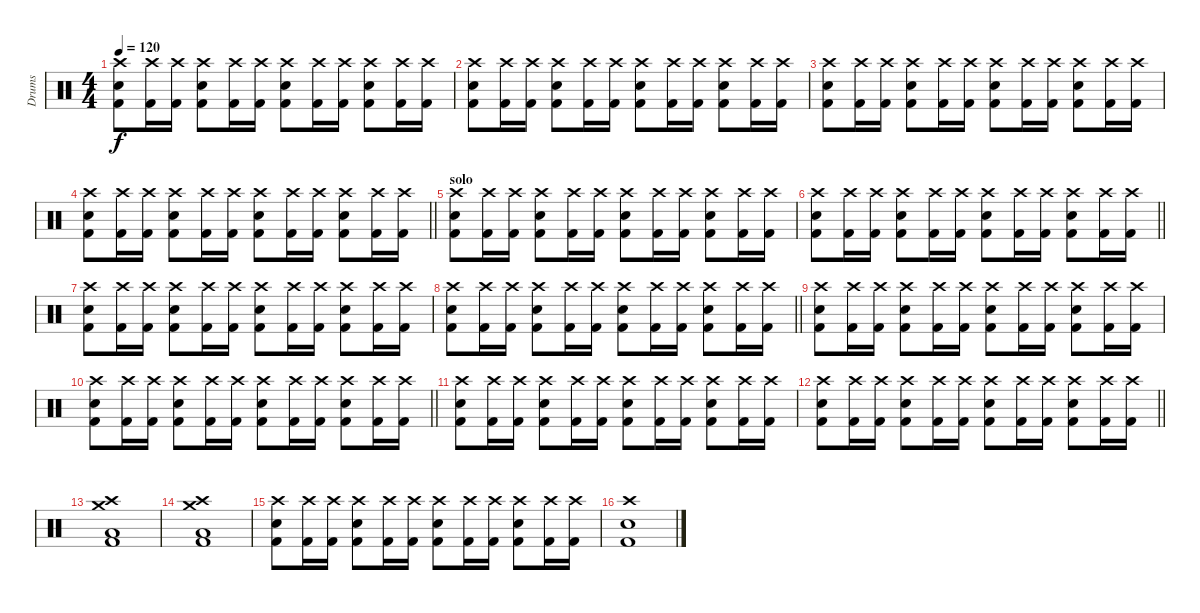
\track ("Drums" "Drums") {instrument percussion}
\staff {score}
\articulation defaults
\ts (4 4)
\tempo 120
\clef neutral
\ks c
("Electric Snare (hit)" "Crash high (hit)" "Kick (hit) 2").8{dy f} ("Crash high (hit)" "Kick (hit) 2").16 ("Crash high (hit)" "Kick (hit) 2").16 ("Electric Snare (hit)" "Crash high (hit)" "Kick (hit) 2").8 ("Crash high (hit)" "Kick (hit) 2").16 ("Crash high (hit)" "Kick (hit) 2").16 ("Electric Snare (hit)" "Crash high (hit)" "Kick (hit) 2").8 ("Crash high (hit)" "Kick (hit) 2").16 ("Crash high (hit)" "Kick (hit) 2").16 ("Electric Snare (hit)" "Crash high (hit)" "Kick (hit) 2").8 ("Crash high (hit)" "Kick (hit) 2").16 ("Crash high (hit)" "Kick (hit) 2").16 |
("Electric Snare (hit)" "Crash high (hit)" "Kick (hit) 2").8 ("Crash high (hit)" "Kick (hit) 2").16 ("Crash high (hit)" "Kick (hit) 2").16 ("Electric Snare (hit)" "Crash high (hit)" "Kick (hit) 2").8 ("Crash high (hit)" "Kick (hit) 2").16 ("Crash high (hit)" "Kick (hit) 2").16 ("Electric Snare (hit)" "Crash high (hit)" "Kick (hit) 2").8 ("Crash high (hit)" "Kick (hit) 2").16 ("Crash high (hit)" "Kick (hit) 2").16 ("Electric Snare (hit)" "Crash high (hit)" "Kick (hit) 2").8 ("Crash high (hit)" "Kick (hit) 2").16 ("Crash high (hit)" "Kick (hit) 2").16 |
("Electric Snare (hit)" "Crash high (hit)" "Kick (hit) 2").8 ("Crash high (hit)" "Kick (hit) 2").16 ("Crash high (hit)" "Kick (hit) 2").16 ("Electric Snare (hit)" "Crash high (hit)" "Kick (hit) 2").8 ("Crash high (hit)" "Kick (hit) 2").16 ("Crash high (hit)" "Kick (hit) 2").16 ("Electric Snare (hit)" "Crash high (hit)" "Kick (hit) 2").8 ("Crash high (hit)" "Kick (hit) 2").16 ("Crash high (hit)" "Kick (hit) 2").16 ("Electric Snare (hit)" "Crash high (hit)" "Kick (hit) 2").8 ("Crash high (hit)" "Kick (hit) 2").16 ("Crash high (hit)" "Kick (hit) 2").16 |
\barLineRight lightlight
("Electric Snare (hit)" "Crash high (hit)" "Kick (hit) 2").8 ("Crash high (hit)" "Kick (hit) 2").16 ("Crash high (hit)" "Kick (hit) 2").16 ("Electric Snare (hit)" "Crash high (hit)" "Kick (hit) 2").8 ("Crash high (hit)" "Kick (hit) 2").16 ("Crash high (hit)" "Kick (hit) 2").16 ("Electric Snare (hit)" "Crash high (hit)" "Kick (hit) 2").8 ("Crash high (hit)" "Kick (hit) 2").16 ("Crash high (hit)" "Kick (hit) 2").16 ("Electric Snare (hit)" "Crash high (hit)" "Kick (hit) 2").8 ("Crash high (hit)" "Kick (hit) 2").16 ("Crash high (hit)" "Kick (hit) 2").16 |
\section ("" "solo")
("Electric Snare (hit)" "Crash high (hit)" "Kick (hit) 2").8 ("Crash high (hit)" "Kick (hit) 2").16 ("Crash high (hit)" "Kick (hit) 2").16 ("Electric Snare (hit)" "Crash high (hit)" "Kick (hit) 2").8 ("Crash high (hit)" "Kick (hit) 2").16 ("Crash high (hit)" "Kick (hit) 2").16 ("Electric Snare (hit)" "Crash high (hit)" "Kick (hit) 2").8 ("Crash high (hit)" "Kick (hit) 2").16 ("Crash high (hit)" "Kick (hit) 2").16 ("Electric Snare (hit)" "Crash high (hit)" "Kick (hit) 2").8 ("Crash high (hit)" "Kick (hit) 2").16 ("Crash high (hit)" "Kick (hit) 2").16 |
\barLineRight lightlight
("Electric Snare (hit)" "Crash high (hit)" "Kick (hit) 2").8 ("Crash high (hit)" "Kick (hit) 2").16 ("Crash high (hit)" "Kick (hit) 2").16 ("Electric Snare (hit)" "Crash high (hit)" "Kick (hit) 2").8 ("Crash high (hit)" "Kick (hit) 2").16 ("Crash high (hit)" "Kick (hit) 2").16 ("Electric Snare (hit)" "Crash high (hit)" "Kick (hit) 2").8 ("Crash high (hit)" "Kick (hit) 2").16 ("Crash high (hit)" "Kick (hit) 2").16 ("Electric Snare (hit)" "Crash high (hit)" "Kick (hit) 2").8 ("Crash high (hit)" "Kick (hit) 2").16 ("Crash high (hit)" "Kick (hit) 2").16 |
("Electric Snare (hit)" "Crash high (hit)" "Kick (hit) 2").8 ("Crash high (hit)" "Kick (hit) 2").16 ("Crash high (hit)" "Kick (hit) 2").16 ("Electric Snare (hit)" "Crash high (hit)" "Kick (hit) 2").8 ("Crash high (hit)" "Kick (hit) 2").16 ("Crash high (hit)" "Kick (hit) 2").16 ("Electric Snare (hit)" "Crash high (hit)" "Kick (hit) 2").8 ("Crash high (hit)" "Kick (hit) 2").16 ("Crash high (hit)" "Kick (hit) 2").16 ("Electric Snare (hit)" "Crash high (hit)" "Kick (hit) 2").8 ("Crash high (hit)" "Kick (hit) 2").16 ("Crash high (hit)" "Kick (hit) 2").16 |
\barLineRight lightlight
("Electric Snare (hit)" "Crash high (hit)" "Kick (hit) 2").8 ("Crash high (hit)" "Kick (hit) 2").16 ("Crash high (hit)" "Kick (hit) 2").16 ("Electric Snare (hit)" "Crash high (hit)" "Kick (hit) 2").8 ("Crash high (hit)" "Kick (hit) 2").16 ("Crash high (hit)" "Kick (hit) 2").16 ("Electric Snare (hit)" "Crash high (hit)" "Kick (hit) 2").8 ("Crash high (hit)" "Kick (hit) 2").16 ("Crash high (hit)" "Kick (hit) 2").16 ("Electric Snare (hit)" "Crash high (hit)" "Kick (hit) 2").8 ("Crash high (hit)" "Kick (hit) 2").16 ("Crash high (hit)" "Kick (hit) 2").16 |
("Electric Snare (hit)" "Crash high (hit)" "Kick (hit) 2").8 ("Crash high (hit)" "Kick (hit) 2").16 ("Crash high (hit)" "Kick (hit) 2").16 ("Electric Snare (hit)" "Crash high (hit)" "Kick (hit) 2").8 ("Crash high (hit)" "Kick (hit) 2").16 ("Crash high (hit)" "Kick (hit) 2").16 ("Electric Snare (hit)" "Crash high (hit)" "Kick (hit) 2").8 ("Crash high (hit)" "Kick (hit) 2").16 ("Crash high (hit)" "Kick (hit) 2").16 ("Electric Snare (hit)" "Crash high (hit)" "Kick (hit) 2").8 ("Crash high (hit)" "Kick (hit) 2").16 ("Crash high (hit)" "Kick (hit) 2").16 |
\barLineRight lightlight
("Electric Snare (hit)" "Crash high (hit)" "Kick (hit) 2").8 ("Crash high (hit)" "Kick (hit) 2").16 ("Crash high (hit)" "Kick (hit) 2").16 ("Electric Snare (hit)" "Crash high (hit)" "Kick (hit) 2").8 ("Crash high (hit)" "Kick (hit) 2").16 ("Crash high (hit)" "Kick (hit) 2").16 ("Electric Snare (hit)" "Crash high (hit)" "Kick (hit) 2").8 ("Crash high (hit)" "Kick (hit) 2").16 ("Crash high (hit)" "Kick (hit) 2").16 ("Electric Snare (hit)" "Crash high (hit)" "Kick (hit) 2").8 ("Crash high (hit)" "Kick (hit) 2").16 ("Crash high (hit)" "Kick (hit) 2").16 |
("Electric Snare (hit)" "Crash high (hit)" "Kick (hit) 2").8 ("Crash high (hit)" "Kick (hit) 2").16 ("Crash high (hit)" "Kick (hit) 2").16 ("Electric Snare (hit)" "Crash high (hit)" "Kick (hit) 2").8 ("Crash high (hit)" "Kick (hit) 2").16 ("Crash high (hit)" "Kick (hit) 2").16 ("Electric Snare (hit)" "Crash high (hit)" "Kick (hit) 2").8 ("Crash high (hit)" "Kick (hit) 2").16 ("Crash high (hit)" "Kick (hit) 2").16 ("Electric Snare (hit)" "Crash high (hit)" "Kick (hit) 2").8 ("Crash high (hit)" "Kick (hit) 2").16 ("Crash high (hit)" "Kick (hit) 2").16 |
\barLineRight lightlight
("Electric Snare (hit)" "Crash high (hit)" "Kick (hit) 2").8 ("Crash high (hit)" "Kick (hit) 2").16 ("Crash high (hit)" "Kick (hit) 2").16 ("Electric Snare (hit)" "Crash high (hit)" "Kick (hit) 2").8 ("Crash high (hit)" "Kick (hit) 2").16 ("Crash high (hit)" "Kick (hit) 2").16 ("Electric Snare (hit)" "Crash high (hit)" "Kick (hit) 2").8 ("Crash high (hit)" "Kick (hit) 2").16 ("Crash high (hit)" "Kick (hit) 2").16 ("Electric Snare (hit)" "Crash high (hit)" "Kick (hit) 2").8 ("Crash high (hit)" "Kick (hit) 2").16 ("Crash high (hit)" "Kick (hit) 2").16 |
("Low Tom (hit)" "Kick (hit) 2" "Crash medium (hit)" "Crash high (hit)").1 |
("Low Tom (hit)" "Kick (hit) 2" "Crash medium (hit)" "Crash high (hit)").1 |
("Electric Snare (hit)" "Crash high (hit)" "Kick (hit) 2").8 ("Crash high (hit)" "Kick (hit) 2").16 ("Crash high (hit)" "Kick (hit) 2").16 ("Electric Snare (hit)" "Crash high (hit)" "Kick (hit) 2").8 ("Crash high (hit)" "Kick (hit) 2").16 ("Crash high (hit)" "Kick (hit) 2").16 ("Electric Snare (hit)" "Crash high (hit)" "Kick (hit) 2").8 ("Crash high (hit)" "Kick (hit) 2").16 ("Crash high (hit)" "Kick (hit) 2").16 ("Electric Snare (hit)" "Crash high (hit)" "Kick (hit) 2").8 ("Crash high (hit)" "Kick (hit) 2").16 ("Crash high (hit)" "Kick (hit) 2").16 |
("Crash high (hit)" "Kick (hit) 2" "Electric Snare (hit)").1
